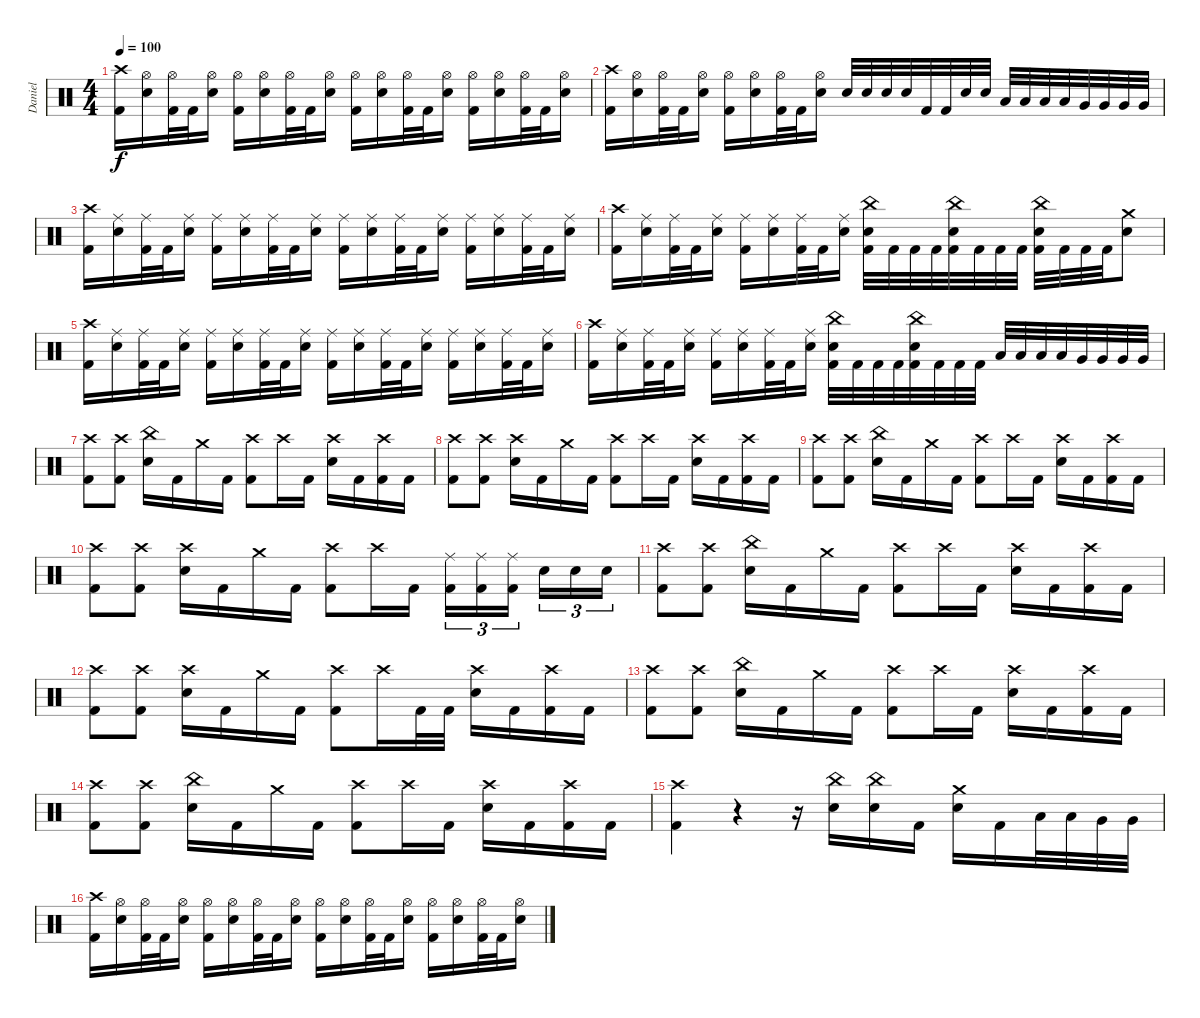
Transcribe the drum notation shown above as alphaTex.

\track ("Daniel" "Daniel") {instrument percussion}
\staff {score}
\articulation defaults
\ts (4 4)
\tempo 100
\clef neutral
\ks c
("Crash high (hit)" "Kick (hit) 2").16{dy f} ("Hi-Hat (open)" "Snare (hit) 2").16 ("Hi-Hat (open)" "Kick (hit) 2").32 "Kick (hit) 2".32 ("Hi-Hat (open)" "Snare (hit) 2").16 ("Hi-Hat (open)" "Kick (hit) 2").16 ("Hi-Hat (open)" "Snare (hit) 2").16 ("Hi-Hat (open)" "Kick (hit) 2").32 "Kick (hit) 2".32 ("Hi-Hat (open)" "Snare (hit) 2").16 ("Hi-Hat (open)" "Kick (hit) 2").16 ("Hi-Hat (open)" "Snare (hit) 2").16 ("Hi-Hat (open)" "Kick (hit) 2").32 "Kick (hit) 2".32 ("Hi-Hat (open)" "Snare (hit) 2").16 ("Hi-Hat (open)" "Kick (hit) 2").16 ("Hi-Hat (open)" "Snare (hit) 2").16 ("Hi-Hat (open)" "Kick (hit) 2").32 "Kick (hit) 2".32 ("Hi-Hat (open)" "Snare (hit) 2").16 |
("Crash high (hit)" "Kick (hit) 2").16 ("Hi-Hat (open)" "Snare (hit) 2").16 ("Hi-Hat (open)" "Kick (hit) 2").32 "Kick (hit) 2".32 ("Hi-Hat (open)" "Snare (hit) 2").16 ("Hi-Hat (open)" "Kick (hit) 2").16 ("Hi-Hat (open)" "Snare (hit) 2").16 ("Hi-Hat (open)" "Kick (hit) 2").32 "Kick (hit) 2".32 ("Hi-Hat (open)" "Snare (hit) 2").16 "Snare (hit) 2".32 "Snare (hit) 2".32 "Snare (hit) 2".32 "Snare (hit) 2".32 "Kick (hit) 2".32 "Kick (hit) 2".32 "Snare (hit) 2".32 "Snare (hit) 2".32 "Low Tom (hit)".32 "Low Tom (hit)".32 "Low Tom (hit)".32 "Low Tom (hit)".32 "Very Low Tom (hit)".32 "Very Low Tom (hit)".32 "Very Low Tom (hit)".32 "Very Low Tom (hit)".32 |
("Crash high (hit)" "Kick (hit) 2").16 ("Ride (middle)" "Snare (hit) 2").16 ("Ride (middle)" "Kick (hit) 2").32 "Kick (hit) 2".32 ("Ride (middle)" "Snare (hit) 2").16 ("Ride (middle)" "Kick (hit) 2").16 ("Ride (middle)" "Snare (hit) 2").16 ("Ride (middle)" "Kick (hit) 2").32 "Kick (hit) 2".32 ("Ride (middle)" "Snare (hit) 2").16 ("Ride (middle)" "Kick (hit) 2").16 ("Ride (middle)" "Snare (hit) 2").16 ("Ride (middle)" "Kick (hit) 2").32 "Kick (hit) 2".32 ("Ride (middle)" "Snare (hit) 2").16 ("Ride (middle)" "Kick (hit) 2").16 ("Ride (middle)" "Snare (hit) 2").16 ("Ride (middle)" "Kick (hit) 2").32 "Kick (hit) 2".32 ("Ride (middle)" "Snare (hit) 2").16 |
("Crash high (hit)" "Kick (hit) 2").16 ("Ride (middle)" "Snare (hit) 2").16 ("Ride (middle)" "Kick (hit) 2").32 "Kick (hit) 2".32 ("Ride (middle)" "Snare (hit) 2").16 ("Ride (middle)" "Kick (hit) 2").16 ("Ride (middle)" "Snare (hit) 2").16 ("Ride (middle)" "Kick (hit) 2").32 "Kick (hit) 2".32 ("Ride (middle)" "Snare (hit) 2").16 ("China (hit)" "Snare (hit) 2" "Kick (hit) 2").32 "Kick (hit) 2".32 "Kick (hit) 2".32 "Kick (hit) 2".32 ("China (hit)" "Snare (hit) 2" "Kick (hit) 2").32 "Kick (hit) 2".32 "Kick (hit) 2".32 "Kick (hit) 2".32 ("China (hit)" "Snare (hit) 2" "Kick (hit) 2").32 "Kick (hit) 2".32 "Kick (hit) 2".32 "Kick (hit) 2".32 ("Crash medium (hit)" "Snare (hit) 2").8 |
("Crash high (hit)" "Kick (hit) 2").16 ("Ride (middle)" "Snare (hit) 2").16 ("Ride (middle)" "Kick (hit) 2").32 "Kick (hit) 2".32 ("Ride (middle)" "Snare (hit) 2").16 ("Ride (middle)" "Kick (hit) 2").16 ("Ride (middle)" "Snare (hit) 2").16 ("Ride (middle)" "Kick (hit) 2").32 "Kick (hit) 2".32 ("Ride (middle)" "Snare (hit) 2").16 ("Ride (middle)" "Kick (hit) 2").16 ("Ride (middle)" "Snare (hit) 2").16 ("Ride (middle)" "Kick (hit) 2").32 "Kick (hit) 2".32 ("Ride (middle)" "Snare (hit) 2").16 ("Ride (middle)" "Kick (hit) 2").16 ("Ride (middle)" "Snare (hit) 2").16 ("Ride (middle)" "Kick (hit) 2").32 "Kick (hit) 2".32 ("Ride (middle)" "Snare (hit) 2").16 |
("Crash high (hit)" "Kick (hit) 2").16 ("Ride (middle)" "Snare (hit) 2").16 ("Ride (middle)" "Kick (hit) 2").32 "Kick (hit) 2".32 ("Ride (middle)" "Snare (hit) 2").16 ("Ride (middle)" "Kick (hit) 2").16 ("Ride (middle)" "Snare (hit) 2").16 ("Ride (middle)" "Kick (hit) 2").32 "Kick (hit) 2".32 ("Ride (middle)" "Snare (hit) 2").16 ("China (hit)" "Snare (hit) 2" "Kick (hit) 2").32 "Kick (hit) 2".32 "Kick (hit) 2".32 "Kick (hit) 2".32 ("China (hit)" "Snare (hit) 2" "Kick (hit) 2").32 "Kick (hit) 2".32 "Kick (hit) 2".32 "Kick (hit) 2".32 "Low Tom (hit)".32 "Low Tom (hit)".32 "Low Tom (hit)".32 "Low Tom (hit)".32 "Very Low Tom (hit)".32 "Very Low Tom (hit)".32 "Very Low Tom (hit)".32 "Very Low Tom (hit)".32 |
("Crash high (hit)" "Kick (hit) 2").8 ("Crash high (hit)" "Kick (hit) 2").8 ("China (hit)" "Snare (hit) 2").16 "Kick (hit) 2".16 "Crash medium (hit)".16 "Kick (hit) 2".16 ("Crash high (hit)" "Kick (hit) 2").8 "Crash high (hit)".16 "Kick (hit) 2".16 ("Crash high (hit)" "Snare (hit) 2").16 "Kick (hit) 2".16 ("Crash high (hit)" "Kick (hit) 2").16 "Kick (hit) 2".16 |
("Crash high (hit)" "Kick (hit) 2").8 ("Crash high (hit)" "Kick (hit) 2").8 ("Crash high (hit)" "Snare (hit) 2").16 "Kick (hit) 2".16 "Crash medium (hit)".16 "Kick (hit) 2".16 ("Crash high (hit)" "Kick (hit) 2").8 "Crash high (hit)".16 "Kick (hit) 2".16 ("Crash high (hit)" "Snare (hit) 2").16 "Kick (hit) 2".16 ("Crash high (hit)" "Kick (hit) 2").16 "Kick (hit) 2".16 |
("Crash high (hit)" "Kick (hit) 2").8 ("Crash high (hit)" "Kick (hit) 2").8 ("China (hit)" "Snare (hit) 2").16 "Kick (hit) 2".16 "Crash medium (hit)".16 "Kick (hit) 2".16 ("Crash high (hit)" "Kick (hit) 2").8 "Crash high (hit)".16 "Kick (hit) 2".16 ("Crash high (hit)" "Snare (hit) 2").16 "Kick (hit) 2".16 ("Crash high (hit)" "Kick (hit) 2").16 "Kick (hit) 2".16 |
("Crash high (hit)" "Kick (hit) 2").8 ("Crash high (hit)" "Kick (hit) 2").8 ("Crash high (hit)" "Snare (hit) 2").16 "Kick (hit) 2".16 "Crash medium (hit)".16 "Kick (hit) 2".16 ("Crash high (hit)" "Kick (hit) 2").8 "Crash high (hit)".16 "Kick (hit) 2".16 ("Ride (middle)" "Kick (hit) 2").16{tu (3 2)} ("Ride (middle)" "Kick (hit) 2").16{tu (3 2)} ("Ride (middle)" "Kick (hit) 2").16{tu (3 2) beam splitsecondary} "Snare (hit) 2".16{tu (3 2)} "Snare (hit) 2".16{tu (3 2)} "Snare (hit) 2".16{tu (3 2)} |
("Crash high (hit)" "Kick (hit) 2").8 ("Crash high (hit)" "Kick (hit) 2").8 ("China (hit)" "Snare (hit) 2").16 "Kick (hit) 2".16 "Crash medium (hit)".16 "Kick (hit) 2".16 ("Crash high (hit)" "Kick (hit) 2").8 "Crash high (hit)".16 "Kick (hit) 2".16 ("Crash high (hit)" "Snare (hit) 2").16 "Kick (hit) 2".16 ("Crash high (hit)" "Kick (hit) 2").16 "Kick (hit) 2".16 |
("Crash high (hit)" "Kick (hit) 2").8 ("Crash high (hit)" "Kick (hit) 2").8 ("Crash high (hit)" "Snare (hit) 2").16 "Kick (hit) 2".16 "Crash medium (hit)".16 "Kick (hit) 2".16 ("Crash high (hit)" "Kick (hit) 2").8 "Crash high (hit)".16 "Kick (hit) 2".32 "Kick (hit) 2".32 ("Crash high (hit)" "Snare (hit) 2").16 "Kick (hit) 2".16 ("Crash high (hit)" "Kick (hit) 2").16 "Kick (hit) 2".16 |
("Crash high (hit)" "Kick (hit) 2").8 ("Crash high (hit)" "Kick (hit) 2").8 ("China (hit)" "Snare (hit) 2").16 "Kick (hit) 2".16 "Crash medium (hit)".16 "Kick (hit) 2".16 ("Crash high (hit)" "Kick (hit) 2").8 "Crash high (hit)".16 "Kick (hit) 2".16 ("Crash high (hit)" "Snare (hit) 2").16 "Kick (hit) 2".16 ("Crash high (hit)" "Kick (hit) 2").16 "Kick (hit) 2".16 |
("Crash high (hit)" "Kick (hit) 2").8 ("Crash high (hit)" "Kick (hit) 2").8 ("China (hit)" "Snare (hit) 2").16 "Kick (hit) 2".16 "Crash medium (hit)".16 "Kick (hit) 2".16 ("Crash high (hit)" "Kick (hit) 2").8 "Crash high (hit)".16 "Kick (hit) 2".16 ("Crash high (hit)" "Snare (hit) 2").16 "Kick (hit) 2".16 ("Crash high (hit)" "Kick (hit) 2").16 "Kick (hit) 2".16 |
("Crash high (hit)" "Kick (hit) 2").4 r.4 r.16 ("China (hit)" "Snare (hit) 2").16 ("China (hit)" "Snare (hit) 2").16 "Kick (hit) 2".16 ("Crash medium (hit)" "Snare (hit) 2").16 "Kick (hit) 2".16 "Low Tom (hit)".32 "Low Tom (hit)".32 "Very Low Tom (hit)".32 "Very Low Tom (hit)".32 |
("Crash high (hit)" "Kick (hit) 2").16 ("Hi-Hat (open)" "Snare (hit) 2").16 ("Hi-Hat (open)" "Kick (hit) 2").32 "Kick (hit) 2".32 ("Hi-Hat (open)" "Snare (hit) 2").16 ("Hi-Hat (open)" "Kick (hit) 2").16 ("Hi-Hat (open)" "Snare (hit) 2").16 ("Hi-Hat (open)" "Kick (hit) 2").32 "Kick (hit) 2".32 ("Hi-Hat (open)" "Snare (hit) 2").16 ("Hi-Hat (open)" "Kick (hit) 2").16 ("Hi-Hat (open)" "Snare (hit) 2").16 ("Hi-Hat (open)" "Kick (hit) 2").32 "Kick (hit) 2".32 ("Hi-Hat (open)" "Snare (hit) 2").16 ("Hi-Hat (open)" "Kick (hit) 2").16 ("Hi-Hat (open)" "Snare (hit) 2").16 ("Hi-Hat (open)" "Kick (hit) 2").32 "Kick (hit) 2".32 ("Hi-Hat (open)" "Snare (hit) 2").16
